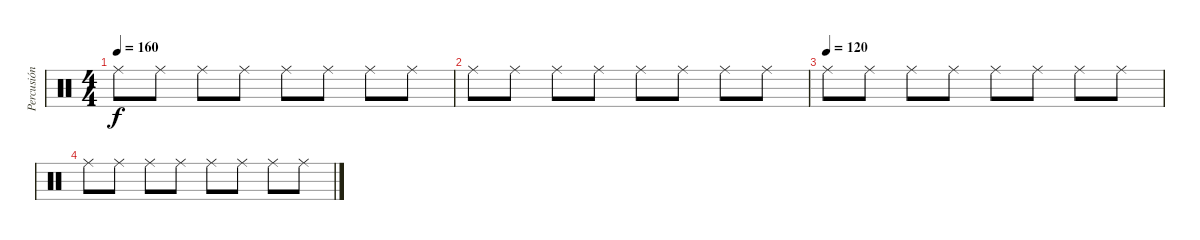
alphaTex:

\track ("Percusión" "Percusión") {instrument percussion}
\staff {score}
\articulation defaults
\ts (4 4)
\tempo 160
\clef neutral
\ks c "Ride (middle)".8{dy f} "Ride (middle)".8 "Ride (middle)".8 "Ride (middle)".8 "Ride (middle)".8 "Ride (middle)".8 "Ride (middle)".8 "Ride (middle)".8
|
"Ride (middle)".8 "Ride (middle)".8 "Ride (middle)".8 "Ride (middle)".8 "Ride (middle)".8 "Ride (middle)".8 "Ride (middle)".8 "Ride (middle)".8 |
\tempo (120)
"Ride (middle)".8 "Ride (middle)".8 "Ride (middle)".8 "Ride (middle)".8 "Ride (middle)".8 "Ride (middle)".8 "Ride (middle)".8 "Ride (middle)".8 |
"Ride (middle)".8 "Ride (middle)".8 "Ride (middle)".8 "Ride (middle)".8 "Ride (middle)".8 "Ride (middle)".8 "Ride (middle)".8 "Ride (middle)".8
